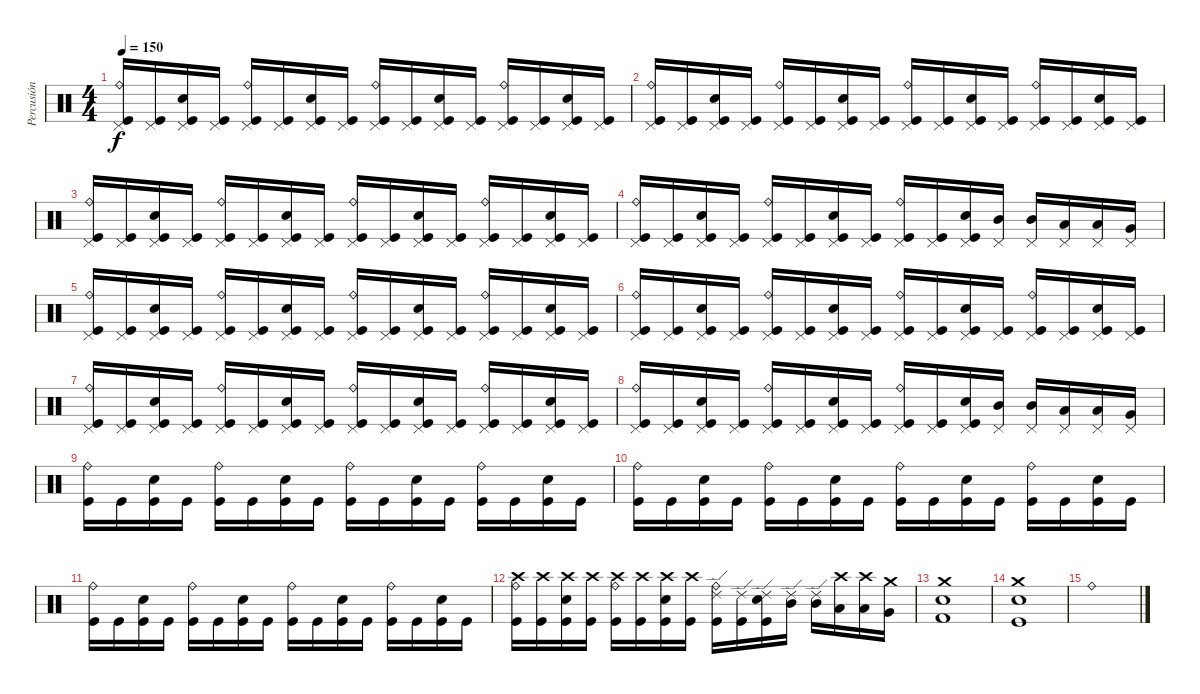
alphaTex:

\track ("Percusión" "Percusión") {instrument percussion}
\staff {score}
\articulation defaults
\ts (4 4)
\tempo 150
\clef neutral
\ks c
("Pedal Hi-Hat (hit)" "Ride (bell)" "Kick (hit)").16{dy f} ("Pedal Hi-Hat (hit)" "Kick (hit)").16 ("Pedal Hi-Hat (hit)" "Electric Snare (hit)" "Kick (hit)").16 ("Pedal Hi-Hat (hit)" "Kick (hit)").16 ("Pedal Hi-Hat (hit)" "Ride (bell)" "Kick (hit)").16 ("Pedal Hi-Hat (hit)" "Kick (hit)").16 ("Pedal Hi-Hat (hit)" "Electric Snare (hit)" "Kick (hit)").16 ("Pedal Hi-Hat (hit)" "Kick (hit)").16 ("Pedal Hi-Hat (hit)" "Ride (bell)" "Kick (hit)").16 ("Pedal Hi-Hat (hit)" "Kick (hit)").16 ("Pedal Hi-Hat (hit)" "Electric Snare (hit)" "Kick (hit)").16 ("Pedal Hi-Hat (hit)" "Kick (hit)").16 ("Pedal Hi-Hat (hit)" "Ride (bell)" "Kick (hit)").16 ("Pedal Hi-Hat (hit)" "Kick (hit)").16 ("Pedal Hi-Hat (hit)" "Electric Snare (hit)" "Kick (hit)").16 ("Pedal Hi-Hat (hit)" "Kick (hit)").16 |
("Pedal Hi-Hat (hit)" "Ride (bell)" "Kick (hit)").16 ("Pedal Hi-Hat (hit)" "Kick (hit)").16 ("Pedal Hi-Hat (hit)" "Electric Snare (hit)" "Kick (hit)").16 ("Pedal Hi-Hat (hit)" "Kick (hit)").16 ("Pedal Hi-Hat (hit)" "Ride (bell)" "Kick (hit)").16 ("Pedal Hi-Hat (hit)" "Kick (hit)").16 ("Pedal Hi-Hat (hit)" "Electric Snare (hit)" "Kick (hit)").16 ("Pedal Hi-Hat (hit)" "Kick (hit)").16 ("Pedal Hi-Hat (hit)" "Ride (bell)" "Kick (hit)").16 ("Pedal Hi-Hat (hit)" "Kick (hit)").16 ("Pedal Hi-Hat (hit)" "Electric Snare (hit)" "Kick (hit)").16 ("Pedal Hi-Hat (hit)" "Kick (hit)").16 ("Pedal Hi-Hat (hit)" "Ride (bell)" "Kick (hit)").16 ("Pedal Hi-Hat (hit)" "Kick (hit)").16 ("Pedal Hi-Hat (hit)" "Electric Snare (hit)" "Kick (hit)").16 ("Pedal Hi-Hat (hit)" "Kick (hit)").16 |
("Pedal Hi-Hat (hit)" "Ride (bell)" "Kick (hit)").16 ("Pedal Hi-Hat (hit)" "Kick (hit)").16 ("Pedal Hi-Hat (hit)" "Electric Snare (hit)" "Kick (hit)").16 ("Pedal Hi-Hat (hit)" "Kick (hit)").16 ("Pedal Hi-Hat (hit)" "Ride (bell)" "Kick (hit)").16 ("Pedal Hi-Hat (hit)" "Kick (hit)").16 ("Pedal Hi-Hat (hit)" "Electric Snare (hit)" "Kick (hit)").16 ("Pedal Hi-Hat (hit)" "Kick (hit)").16 ("Pedal Hi-Hat (hit)" "Ride (bell)" "Kick (hit)").16 ("Pedal Hi-Hat (hit)" "Kick (hit)").16 ("Pedal Hi-Hat (hit)" "Electric Snare (hit)" "Kick (hit)").16 ("Pedal Hi-Hat (hit)" "Kick (hit)").16 ("Pedal Hi-Hat (hit)" "Ride (bell)" "Kick (hit)").16 ("Pedal Hi-Hat (hit)" "Kick (hit)").16 ("Pedal Hi-Hat (hit)" "Electric Snare (hit)" "Kick (hit)").16 ("Pedal Hi-Hat (hit)" "Kick (hit)").16 |
("Pedal Hi-Hat (hit)" "Ride (bell)" "Kick (hit)").16 ("Pedal Hi-Hat (hit)" "Kick (hit)").16 ("Pedal Hi-Hat (hit)" "Electric Snare (hit)" "Kick (hit)").16 ("Pedal Hi-Hat (hit)" "Kick (hit)").16 ("Pedal Hi-Hat (hit)" "Ride (bell)" "Kick (hit)").16 ("Pedal Hi-Hat (hit)" "Kick (hit)").16 ("Pedal Hi-Hat (hit)" "Electric Snare (hit)" "Kick (hit)").16 ("Pedal Hi-Hat (hit)" "Kick (hit)").16 ("Pedal Hi-Hat (hit)" "Ride (bell)" "Kick (hit)").16 ("Pedal Hi-Hat (hit)" "Kick (hit)").16 ("Pedal Hi-Hat (hit)" "Electric Snare (hit)" "Kick (hit)").16 ("Pedal Hi-Hat (hit)" "Mid Tom (hit)").16 ("Pedal Hi-Hat (hit)" "Mid Tom (hit)").16 ("Pedal Hi-Hat (hit)" "Low Tom (hit)").16 ("Pedal Hi-Hat (hit)" "Low Tom (hit)").16 ("Pedal Hi-Hat (hit)" "Very Low Tom (hit)").16 |
("Pedal Hi-Hat (hit)" "Ride (bell)" "Kick (hit)").16 ("Pedal Hi-Hat (hit)" "Kick (hit)").16 ("Pedal Hi-Hat (hit)" "Electric Snare (hit)" "Kick (hit)").16 ("Pedal Hi-Hat (hit)" "Kick (hit)").16 ("Pedal Hi-Hat (hit)" "Ride (bell)" "Kick (hit)").16 ("Pedal Hi-Hat (hit)" "Kick (hit)").16 ("Pedal Hi-Hat (hit)" "Electric Snare (hit)" "Kick (hit)").16 ("Pedal Hi-Hat (hit)" "Kick (hit)").16 ("Pedal Hi-Hat (hit)" "Ride (bell)" "Kick (hit)").16 ("Pedal Hi-Hat (hit)" "Kick (hit)").16 ("Pedal Hi-Hat (hit)" "Electric Snare (hit)" "Kick (hit)").16 ("Pedal Hi-Hat (hit)" "Kick (hit)").16 ("Pedal Hi-Hat (hit)" "Ride (bell)" "Kick (hit)").16 ("Pedal Hi-Hat (hit)" "Kick (hit)").16 ("Pedal Hi-Hat (hit)" "Electric Snare (hit)" "Kick (hit)").16 ("Pedal Hi-Hat (hit)" "Kick (hit)").16 |
("Pedal Hi-Hat (hit)" "Ride (bell)" "Kick (hit)").16 ("Pedal Hi-Hat (hit)" "Kick (hit)").16 ("Pedal Hi-Hat (hit)" "Electric Snare (hit)" "Kick (hit)").16 ("Pedal Hi-Hat (hit)" "Kick (hit)").16 ("Pedal Hi-Hat (hit)" "Ride (bell)" "Kick (hit)").16 ("Pedal Hi-Hat (hit)" "Kick (hit)").16 ("Pedal Hi-Hat (hit)" "Electric Snare (hit)" "Kick (hit)").16 ("Pedal Hi-Hat (hit)" "Kick (hit)").16 ("Pedal Hi-Hat (hit)" "Ride (bell)" "Kick (hit)").16 ("Pedal Hi-Hat (hit)" "Kick (hit)").16 ("Pedal Hi-Hat (hit)" "Electric Snare (hit)" "Kick (hit)").16 ("Pedal Hi-Hat (hit)" "Kick (hit)").16 ("Pedal Hi-Hat (hit)" "Ride (bell)" "Kick (hit)").16 ("Pedal Hi-Hat (hit)" "Kick (hit)").16 ("Pedal Hi-Hat (hit)" "Electric Snare (hit)" "Kick (hit)").16 ("Pedal Hi-Hat (hit)" "Kick (hit)").16 |
("Pedal Hi-Hat (hit)" "Ride (bell)" "Kick (hit)").16 ("Pedal Hi-Hat (hit)" "Kick (hit)").16 ("Pedal Hi-Hat (hit)" "Electric Snare (hit)" "Kick (hit)").16 ("Pedal Hi-Hat (hit)" "Kick (hit)").16 ("Pedal Hi-Hat (hit)" "Ride (bell)" "Kick (hit)").16 ("Pedal Hi-Hat (hit)" "Kick (hit)").16 ("Pedal Hi-Hat (hit)" "Electric Snare (hit)" "Kick (hit)").16 ("Pedal Hi-Hat (hit)" "Kick (hit)").16 ("Pedal Hi-Hat (hit)" "Ride (bell)" "Kick (hit)").16 ("Pedal Hi-Hat (hit)" "Kick (hit)").16 ("Pedal Hi-Hat (hit)" "Electric Snare (hit)" "Kick (hit)").16 ("Pedal Hi-Hat (hit)" "Kick (hit)").16 ("Pedal Hi-Hat (hit)" "Ride (bell)" "Kick (hit)").16 ("Pedal Hi-Hat (hit)" "Kick (hit)").16 ("Pedal Hi-Hat (hit)" "Electric Snare (hit)" "Kick (hit)").16 ("Pedal Hi-Hat (hit)" "Kick (hit)").16 |
("Pedal Hi-Hat (hit)" "Ride (bell)" "Kick (hit)").16 ("Pedal Hi-Hat (hit)" "Kick (hit)").16 ("Pedal Hi-Hat (hit)" "Electric Snare (hit)" "Kick (hit)").16 ("Pedal Hi-Hat (hit)" "Kick (hit)").16 ("Pedal Hi-Hat (hit)" "Ride (bell)" "Kick (hit)").16 ("Pedal Hi-Hat (hit)" "Kick (hit)").16 ("Pedal Hi-Hat (hit)" "Electric Snare (hit)" "Kick (hit)").16 ("Pedal Hi-Hat (hit)" "Kick (hit)").16 ("Pedal Hi-Hat (hit)" "Ride (bell)" "Kick (hit)").16 ("Pedal Hi-Hat (hit)" "Kick (hit)").16 ("Pedal Hi-Hat (hit)" "Electric Snare (hit)" "Kick (hit)").16 ("Pedal Hi-Hat (hit)" "Mid Tom (hit)").16 ("Pedal Hi-Hat (hit)" "Mid Tom (hit)").16 ("Pedal Hi-Hat (hit)" "Low Tom (hit)").16 ("Pedal Hi-Hat (hit)" "Low Tom (hit)").16 ("Pedal Hi-Hat (hit)" "Very Low Tom (hit)").16 |
("Ride (bell)" "Kick (hit)").16 "Kick (hit)".16 ("Electric Snare (hit)" "Kick (hit)").16 "Kick (hit)".16 ("Ride (bell)" "Kick (hit)").16 "Kick (hit)".16 ("Electric Snare (hit)" "Kick (hit)").16 "Kick (hit)".16 ("Ride (bell)" "Kick (hit)").16 "Kick (hit)".16 ("Electric Snare (hit)" "Kick (hit)").16 "Kick (hit)".16 ("Ride (bell)" "Kick (hit)").16 "Kick (hit)".16 ("Electric Snare (hit)" "Kick (hit)").16 "Kick (hit)".16 |
("Ride (bell)" "Kick (hit)").16 "Kick (hit)".16 ("Electric Snare (hit)" "Kick (hit)").16 "Kick (hit)".16 ("Ride (bell)" "Kick (hit)").16 "Kick (hit)".16 ("Electric Snare (hit)" "Kick (hit)").16 "Kick (hit)".16 ("Ride (bell)" "Kick (hit)").16 "Kick (hit)".16 ("Electric Snare (hit)" "Kick (hit)").16 "Kick (hit)".16 ("Ride (bell)" "Kick (hit)").16 "Kick (hit)".16 ("Electric Snare (hit)" "Kick (hit)").16 "Kick (hit)".16 |
("Ride (bell)" "Kick (hit)").16 "Kick (hit)".16 ("Electric Snare (hit)" "Kick (hit)").16 "Kick (hit)".16 ("Ride (bell)" "Kick (hit)").16 "Kick (hit)".16 ("Electric Snare (hit)" "Kick (hit)").16 "Kick (hit)".16 ("Ride (bell)" "Kick (hit)").16 "Kick (hit)".16 ("Electric Snare (hit)" "Kick (hit)").16 "Kick (hit)".16 ("Ride (bell)" "Kick (hit)").16 "Kick (hit)".16 ("Electric Snare (hit)" "Kick (hit)").16 "Kick (hit)".16 |
("Crash high (hit)" "Ride (bell)" "Kick (hit)").16 ("Crash high (hit)" "Kick (hit)").16 ("Crash high (hit)" "Electric Snare (hit)" "Kick (hit)").16 ("Crash high (hit)" "Kick (hit)").16 ("Crash high (hit)" "Ride (bell)" "Kick (hit)").16 ("Crash high (hit)" "Kick (hit)").16 ("Crash high (hit)" "Electric Snare (hit)" "Kick (hit)").16 ("Crash high (hit)" "Kick (hit)").16 ("Ride (edge) 2" "Ride (bell)" "Kick (hit)").16 ("Ride (edge) 2" "Kick (hit)").16 ("Ride (edge) 2" "Electric Snare (hit)" "Kick (hit)").16 ("Ride (edge) 2" "Mid Tom (hit)").16 ("Ride (edge) 2" "Mid Tom (hit)").16 ("Crash high (hit)" "Low Tom (hit)").16 ("Crash high (hit)" "Low Tom (hit)").16 ("Crash medium (hit)" "Very Low Tom (hit)").16 |
("Crash medium (hit)" "Electric Snare (hit)" "Kick (hit) 2").1 |
("Crash medium (hit)" "Electric Snare (hit)" "Kick (hit)").1 |
"Ride (bell)".1
